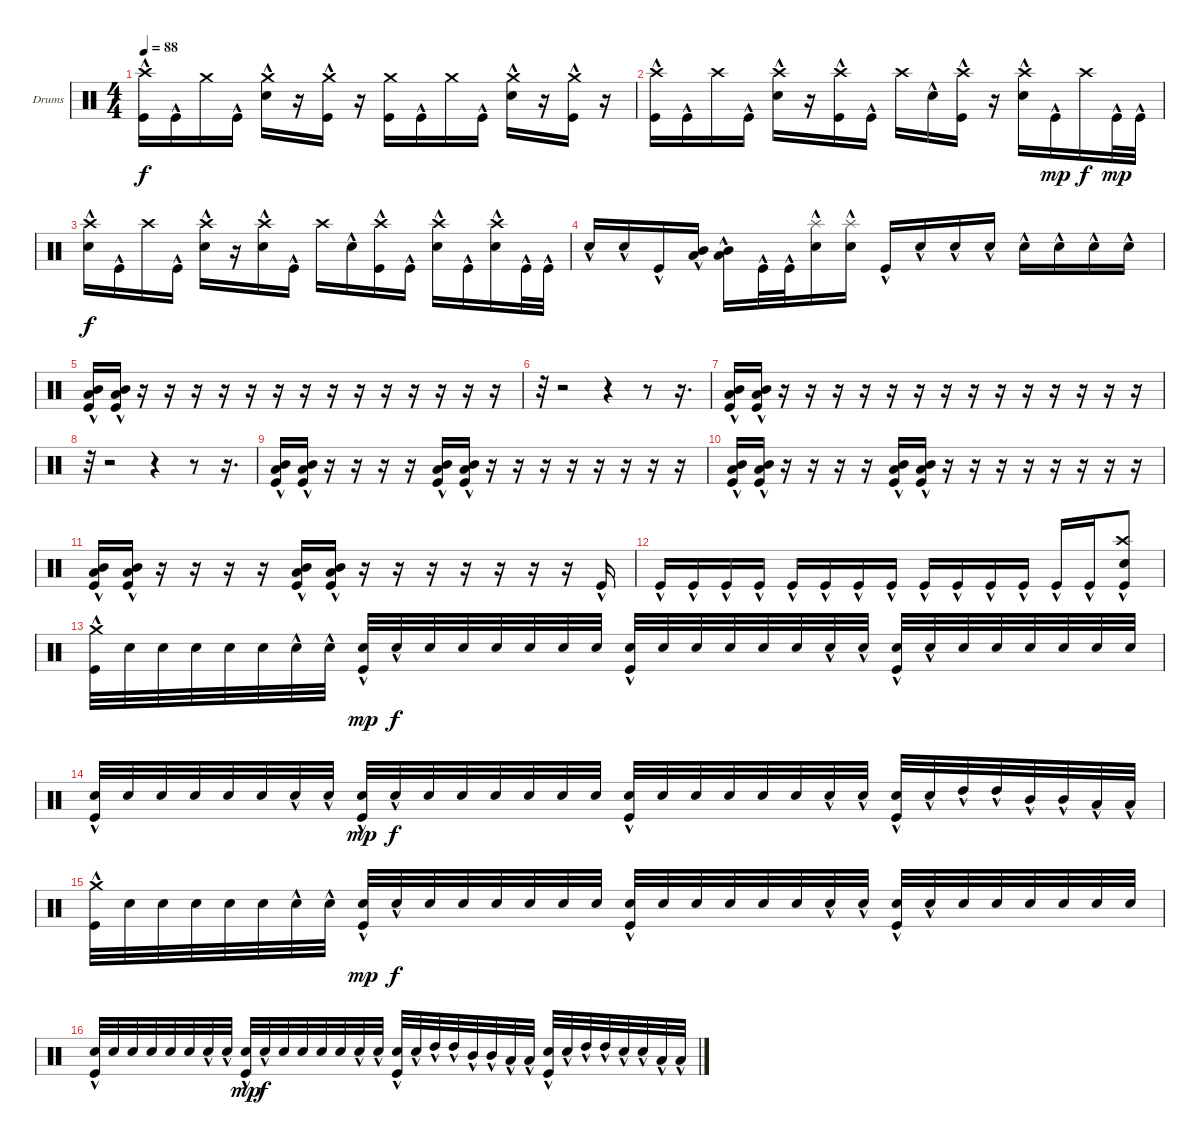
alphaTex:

\bracketExtendMode groupsimilarinstruments
\firstSystemTrackNameOrientation horizontal
\otherSystemsTrackNameOrientation horizontal
\track ("Drumkit" "Drums") {instrument percussion}
\staff {score}
\articulation defaults
\ts (4 4)
\tempo 88
\clef neutral
\ks c
("Kick (hit)"{hac} "Crash high (hit)").16{dy f} "Kick (hit)"{hac}.16 "Crash medium (hit)".16 "Kick (hit)"{hac}.16 ("Snare (hit) 2"{hac} "Crash medium (hit)").16 r.16 ("Kick (hit)"{hac} "Crash medium (hit)").16 r.16 ("Kick (hit)" "Crash medium (hit)").16 "Kick (hit)"{hac}.16 "Crash medium (hit)".16 "Kick (hit)"{hac}.16 ("Snare (hit) 2"{hac} "Crash medium (hit)").16 r.16 ("Kick (hit)"{hac} "Crash medium (hit)").16 r.16 |
("Kick (hit)"{hac} "Crash high (hit)").16 "Kick (hit)"{hac}.16 "Crash high (hit)".16 "Kick (hit)"{hac}.16 ("Snare (hit) 2"{hac} "Crash high (hit)").16 r.16 ("Kick (hit)"{hac} "Crash high (hit)").16 "Kick (hit)"{hac}.16 "Crash high (hit)".16 "Snare (hit) 2"{hac}.16 ("Kick (hit)"{hac} "Crash high (hit)").16 r.16 ("Snare (hit) 2"{hac} "Crash high (hit)").16 "Kick (hit)"{hac}.16{dy mp} "Crash high (hit)".16{dy f} "Kick (hit)"{hac}.32{dy mp} "Kick (hit)"{hac}.32 |
("Snare (hit) 2"{hac} "Crash high (hit)").16{dy f} "Kick (hit)"{hac}.16 "Crash high (hit)".16 "Kick (hit)"{hac}.16 ("Snare (hit) 2"{hac} "Crash high (hit)").16 r.16 ("Snare (hit) 2"{hac} "Crash high (hit)").16 "Kick (hit)"{hac}.16 "Crash high (hit)".16 "Snare (hit) 2"{hac}.16 ("Kick (hit)"{hac} "Crash high (hit)").16 "Kick (hit)"{hac}.16 ("Snare (hit) 2"{hac} "Crash high (hit)").16 "Kick (hit)"{hac}.16 ("Snare (hit) 2"{hac} "Crash high (hit)").16 "Kick (hit)"{hac}.32 "Kick (hit)"{hac}.32 |
"Snare (hit) 2"{hac}.16 "Snare (hit) 2"{hac}.16 "Kick (hit)"{hac}.16 ("Mid Tom (hit)"{hac} "Low Tom (hit)"{hac}).16 ("Mid Tom (hit)"{hac} "Low Tom (hit)"{hac}).16 "Kick (hit)"{hac}.32 "Kick (hit)"{hac}.32 ("Snare (hit) 2"{hac} "Splash (hit)").16 ("Snare (hit) 2"{hac} "Splash (hit)").16 "Kick (hit)"{hac}.16 "Snare (hit) 2"{hac}.16 "Snare (hit) 2"{hac}.16 "Snare (hit) 2"{hac}.16 "Snare (hit) 2"{hac}.16 "Snare (hit) 2"{hac}.16 "Snare (hit) 2"{hac}.16 "Snare (hit) 2"{hac}.16 |
("Kick (hit)"{hac} "Low Tom (hit)"{hac} "Mid Tom (hit)"{hac}).16 ("Kick (hit)"{hac} "Low Tom (hit)"{hac} "Mid Tom (hit)"{hac}).16 r.16 r.16 r.16 r.16 r.16 r.16 r.16 r.16 r.16 r.16 r.16 r.16 r.16 r.16 |
r.32 r.2 r.4 r.8 r.16{d} |
("Kick (hit)"{hac} "Low Tom (hit)"{hac} "Mid Tom (hit)"{hac}).16 ("Kick (hit)"{hac} "Low Tom (hit)"{hac} "Mid Tom (hit)"{hac}).16 r.16 r.16 r.16 r.16 r.16 r.16 r.16 r.16 r.16 r.16 r.16 r.16 r.16 r.16 |
r.32 r.2 r.4 r.8 r.16{d} |
("Kick (hit)"{hac} "Low Tom (hit)"{hac} "Mid Tom (hit)"{hac}).16 ("Kick (hit)"{hac} "Low Tom (hit)"{hac} "Mid Tom (hit)"{hac}).16 r.16 r.16 r.16 r.16 ("Kick (hit)"{hac} "Low Tom (hit)"{hac} "Mid Tom (hit)"{hac}).16 ("Kick (hit)"{hac} "Low Tom (hit)"{hac} "Mid Tom (hit)"{hac}).16 r.16 r.16 r.16 r.16 r.16 r.16 r.16 r.16 |
("Kick (hit)"{hac} "Low Tom (hit)"{hac} "Mid Tom (hit)"{hac}).16 ("Kick (hit)"{hac} "Low Tom (hit)"{hac} "Mid Tom (hit)"{hac}).16 r.16 r.16 r.16 r.16 ("Kick (hit)"{hac} "Low Tom (hit)"{hac} "Mid Tom (hit)"{hac}).16 ("Kick (hit)"{hac} "Low Tom (hit)"{hac} "Mid Tom (hit)"{hac}).16 r.16 r.16 r.16 r.16 r.16 r.16 r.16 r.16 |
("Kick (hit)"{hac} "Low Tom (hit)"{hac} "Mid Tom (hit)"{hac}).16 ("Kick (hit)"{hac} "Low Tom (hit)"{hac} "Mid Tom (hit)"{hac}).16 r.16 r.16 r.16 r.16 ("Kick (hit)"{hac} "Low Tom (hit)"{hac} "Mid Tom (hit)"{hac}).16 ("Kick (hit)"{hac} "Low Tom (hit)"{hac} "Mid Tom (hit)"{hac}).16 r.16 r.16 r.16 r.16 r.16 r.16 r.16 "Kick (hit)"{hac}.16 |
"Kick (hit)"{hac}.16 "Kick (hit)"{hac}.16 "Kick (hit)"{hac}.16 "Kick (hit)"{hac}.16 "Kick (hit)"{hac}.16 "Kick (hit)"{hac}.16 "Kick (hit)"{hac}.16 "Kick (hit)"{hac}.16 "Kick (hit)"{hac}.16 "Kick (hit)"{hac}.16 "Kick (hit)"{hac}.16 "Kick (hit)"{hac}.16 "Kick (hit)"{hac}.16 "Kick (hit)"{hac}.16 ("Kick (hit)"{hac} "Snare (hit) 2"{hac} "Crash high (hit)").8 |
("Kick (hit)"{hac} "Crash medium (hit)").32 "Snare (hit) 2".32 "Snare (hit) 2".32 "Snare (hit) 2".32 "Snare (hit) 2".32 "Snare (hit) 2".32 "Snare (hit) 2"{hac}.32 "Snare (hit) 2"{hac}.32 ("Kick (hit)"{hac} "Snare (hit) 2"{hac}).32{dy mp} "Snare (hit) 2"{hac}.32{dy f} "Snare (hit) 2".32 "Snare (hit) 2".32 "Snare (hit) 2".32 "Snare (hit) 2".32 "Snare (hit) 2".32 "Snare (hit) 2".32 ("Kick (hit)"{hac} "Snare (hit) 2").32 "Snare (hit) 2".32 "Snare (hit) 2".32 "Snare (hit) 2".32 "Snare (hit) 2".32 "Snare (hit) 2".32 "Snare (hit) 2"{hac}.32 "Snare (hit) 2"{hac}.32 ("Kick (hit)"{hac} "Snare (hit) 2"{hac}).32 "Snare (hit) 2"{hac}.32 "Snare (hit) 2".32 "Snare (hit) 2".32 "Snare (hit) 2".32 "Snare (hit) 2".32 "Snare (hit) 2".32 "Snare (hit) 2".32 |
("Kick (hit)"{hac} "Snare (hit) 2").32 "Snare (hit) 2".32 "Snare (hit) 2".32 "Snare (hit) 2".32 "Snare (hit) 2".32 "Snare (hit) 2".32 "Snare (hit) 2"{hac}.32 "Snare (hit) 2"{hac}.32 ("Kick (hit)"{hac} "Snare (hit) 2"{hac}).32{dy mp} "Snare (hit) 2"{hac}.32{dy f} "Snare (hit) 2".32 "Snare (hit) 2".32 "Snare (hit) 2".32 "Snare (hit) 2".32 "Snare (hit) 2".32 "Snare (hit) 2".32 ("Kick (hit)"{hac} "Snare (hit) 2").32 "Snare (hit) 2".32 "Snare (hit) 2".32 "Snare (hit) 2".32 "Snare (hit) 2".32 "Snare (hit) 2".32 "Snare (hit) 2"{hac}.32 "Snare (hit) 2"{hac}.32 ("Kick (hit)"{hac} "Snare (hit) 2"{hac}).32 "Snare (hit) 2"{hac}.32 "High Tom (hit)"{hac}.32 "High Tom (hit)"{hac}.32 "Mid Tom (hit)"{hac}.32 "Mid Tom (hit)"{hac}.32 "Low Tom (hit)"{hac}.32 "Low Tom (hit)"{hac}.32 |
("Kick (hit)"{hac} "Crash medium (hit)").32 "Snare (hit) 2".32 "Snare (hit) 2".32 "Snare (hit) 2".32 "Snare (hit) 2".32 "Snare (hit) 2".32 "Snare (hit) 2"{hac}.32 "Snare (hit) 2"{hac}.32 ("Kick (hit)"{hac} "Snare (hit) 2"{hac}).32{dy mp} "Snare (hit) 2"{hac}.32{dy f} "Snare (hit) 2".32 "Snare (hit) 2".32 "Snare (hit) 2".32 "Snare (hit) 2".32 "Snare (hit) 2".32 "Snare (hit) 2".32 ("Kick (hit)"{hac} "Snare (hit) 2").32 "Snare (hit) 2".32 "Snare (hit) 2".32 "Snare (hit) 2".32 "Snare (hit) 2".32 "Snare (hit) 2".32 "Snare (hit) 2"{hac}.32 "Snare (hit) 2"{hac}.32 ("Kick (hit)"{hac} "Snare (hit) 2"{hac}).32 "Snare (hit) 2"{hac}.32 "Snare (hit) 2".32 "Snare (hit) 2".32 "Snare (hit) 2".32 "Snare (hit) 2".32 "Snare (hit) 2".32 "Snare (hit) 2".32 |
("Kick (hit)"{hac} "Snare (hit) 2").32 "Snare (hit) 2".32 "Snare (hit) 2".32 "Snare (hit) 2".32 "Snare (hit) 2".32 "Snare (hit) 2".32 "Snare (hit) 2"{hac}.32 "Snare (hit) 2"{hac}.32 ("Kick (hit)"{hac} "Snare (hit) 2"{hac}).32{dy mp} "Snare (hit) 2"{hac}.32{dy f} "Snare (hit) 2".32 "Snare (hit) 2".32 "Snare (hit) 2".32 "Snare (hit) 2".32 "Snare (hit) 2"{hac}.32 "Snare (hit) 2"{hac}.32 ("Kick (hit)"{hac} "Snare (hit) 2"{hac}).32 "Snare (hit) 2"{hac}.32 "High Tom (hit)"{hac}.32 "High Tom (hit)"{hac}.32 "Mid Tom (hit)"{hac}.32 "Mid Tom (hit)"{hac}.32 "Low Tom (hit)"{hac}.32 "Low Tom (hit)"{hac}.32 ("Kick (hit)"{hac} "Snare (hit) 2"{hac}).32 "Snare (hit) 2"{hac}.32 "High Tom (hit)"{hac}.32 "High Tom (hit)"{hac}.32 "Snare (hit) 2"{hac}.32 "Snare (hit) 2"{hac}.32 "Low Tom (hit)"{hac}.32 "Low Tom (hit)"{hac}.32
